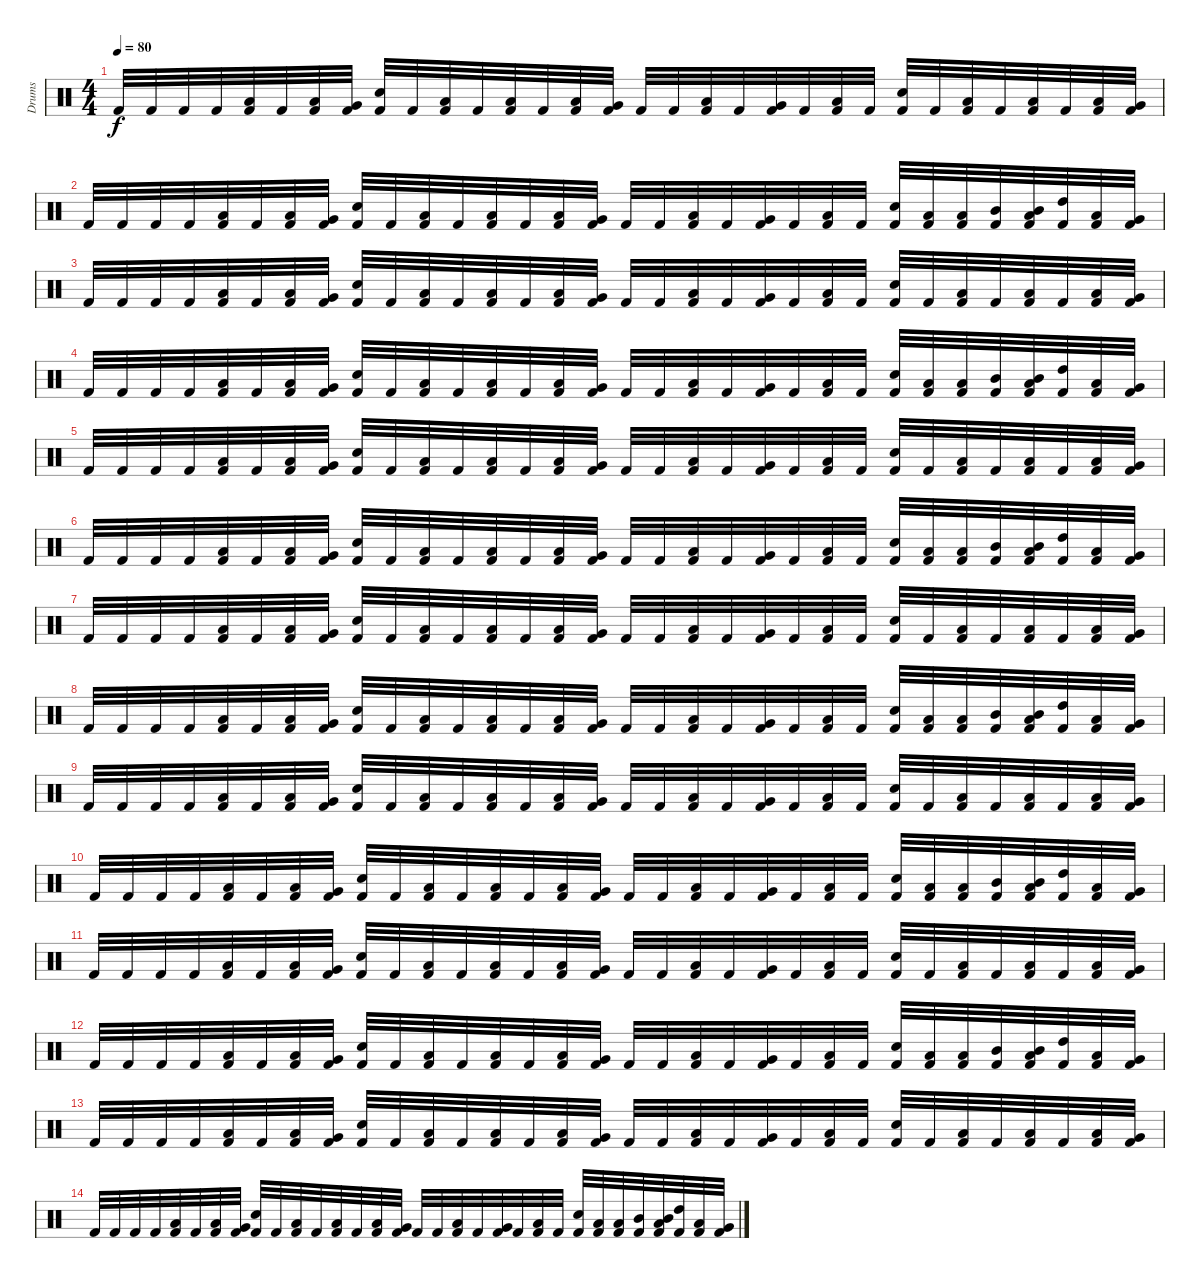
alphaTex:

\track ("Drums" "Drums") {instrument percussion}
\staff {score}
\articulation defaults
\ts (4 4)
\tempo 80
\clef neutral
\ks c "Kick (hit) 2".32{dy f} "Kick (hit) 2".32 "Kick (hit) 2".32 "Kick (hit) 2".32
("Kick (hit) 2" "Low Tom (hit)").32 "Kick (hit) 2".32 ("Kick (hit) 2" "Low Tom (hit)").32 ("Kick (hit) 2" "Very Low Tom (hit)").32 ("Kick (hit) 2" "Electric Snare (hit)").32 "Kick (hit) 2".32 ("Kick (hit) 2" "Low Tom (hit)").32 "Kick (hit) 2".32 ("Kick (hit) 2" "Low Floor Tom (hit)").32 "Kick (hit) 2".32 ("Kick (hit) 2" "Low Tom (hit)").32 ("Kick (hit) 2" "Very Low Tom (hit)").32 "Kick (hit) 2".32 "Kick (hit) 2".32 ("Kick (hit) 2" "Low Floor Tom (hit)").32 "Kick (hit) 2".32 ("Kick (hit) 2" "Very Low Tom (hit)").32 "Kick (hit) 2".32 ("Kick (hit) 2" "Low Tom (hit)").32 "Kick (hit) 2".32 ("Kick (hit) 2" "Electric Snare (hit)").32 "Kick (hit) 2".32 ("Kick (hit) 2" "Low Tom (hit)").32 "Kick (hit) 2".32 ("Kick (hit) 2" "Low Floor Tom (hit)").32 "Kick (hit) 2".32 ("Kick (hit) 2" "Low Tom (hit)").32 ("Kick (hit) 2" "Very Low Tom (hit)").32 |
"Kick (hit) 2".32 "Kick (hit) 2".32 "Kick (hit) 2".32 "Kick (hit) 2".32 ("Kick (hit) 2" "Low Tom (hit)").32 "Kick (hit) 2".32 ("Kick (hit) 2" "Low Tom (hit)").32 ("Kick (hit) 2" "Very Low Tom (hit)").32 ("Kick (hit) 2" "Electric Snare (hit)").32 "Kick (hit) 2".32 ("Kick (hit) 2" "Low Tom (hit)").32 "Kick (hit) 2".32 ("Kick (hit) 2" "Low Floor Tom (hit)").32 "Kick (hit) 2".32 ("Kick (hit) 2" "Low Tom (hit)").32 ("Kick (hit) 2" "Very Low Tom (hit)").32 "Kick (hit) 2".32 "Kick (hit) 2".32 ("Kick (hit) 2" "Low Floor Tom (hit)").32 "Kick (hit) 2".32 ("Kick (hit) 2" "Very Low Tom (hit)").32 "Kick (hit) 2".32 ("Kick (hit) 2" "Low Tom (hit)").32 "Kick (hit) 2".32 ("Kick (hit) 2" "Electric Snare (hit)").32 ("Low Tom (hit)" "Kick (hit) 2").32 ("Kick (hit) 2" "Low Tom (hit)").32 ("Mid Tom (hit)" "Kick (hit) 2").32 ("Mid Tom (hit)" "Kick (hit) 2" "Low Floor Tom (hit)").32 ("High Tom (hit)" "Kick (hit) 2").32 ("Kick (hit) 2" "Low Tom (hit)").32 ("Kick (hit) 2" "Very Low Tom (hit)").32 |
"Kick (hit) 2".32 "Kick (hit) 2".32 "Kick (hit) 2".32 "Kick (hit) 2".32 ("Kick (hit) 2" "Low Tom (hit)").32 "Kick (hit) 2".32 ("Kick (hit) 2" "Low Tom (hit)").32 ("Kick (hit) 2" "Very Low Tom (hit)").32 ("Kick (hit) 2" "Electric Snare (hit)").32 "Kick (hit) 2".32 ("Kick (hit) 2" "Low Tom (hit)").32 "Kick (hit) 2".32 ("Kick (hit) 2" "Low Floor Tom (hit)").32 "Kick (hit) 2".32 ("Kick (hit) 2" "Low Tom (hit)").32 ("Kick (hit) 2" "Very Low Tom (hit)").32 "Kick (hit) 2".32 "Kick (hit) 2".32 ("Kick (hit) 2" "Low Floor Tom (hit)").32 "Kick (hit) 2".32 ("Kick (hit) 2" "Very Low Tom (hit)").32 "Kick (hit) 2".32 ("Kick (hit) 2" "Low Tom (hit)").32 "Kick (hit) 2".32 ("Kick (hit) 2" "Electric Snare (hit)").32 "Kick (hit) 2".32 ("Kick (hit) 2" "Low Tom (hit)").32 "Kick (hit) 2".32 ("Kick (hit) 2" "Low Floor Tom (hit)").32 "Kick (hit) 2".32 ("Kick (hit) 2" "Low Tom (hit)").32 ("Kick (hit) 2" "Very Low Tom (hit)").32 |
"Kick (hit) 2".32 "Kick (hit) 2".32 "Kick (hit) 2".32 "Kick (hit) 2".32 ("Kick (hit) 2" "Low Tom (hit)").32 "Kick (hit) 2".32 ("Kick (hit) 2" "Low Tom (hit)").32 ("Kick (hit) 2" "Very Low Tom (hit)").32 ("Kick (hit) 2" "Electric Snare (hit)").32 "Kick (hit) 2".32 ("Kick (hit) 2" "Low Tom (hit)").32 "Kick (hit) 2".32 ("Kick (hit) 2" "Low Floor Tom (hit)").32 "Kick (hit) 2".32 ("Kick (hit) 2" "Low Tom (hit)").32 ("Kick (hit) 2" "Very Low Tom (hit)").32 "Kick (hit) 2".32 "Kick (hit) 2".32 ("Kick (hit) 2" "Low Floor Tom (hit)").32 "Kick (hit) 2".32 ("Kick (hit) 2" "Very Low Tom (hit)").32 "Kick (hit) 2".32 ("Kick (hit) 2" "Low Tom (hit)").32 "Kick (hit) 2".32 ("Kick (hit) 2" "Electric Snare (hit)").32 ("Low Tom (hit)" "Kick (hit) 2").32 ("Kick (hit) 2" "Low Tom (hit)").32 ("Mid Tom (hit)" "Kick (hit) 2").32 ("Mid Tom (hit)" "Kick (hit) 2" "Low Floor Tom (hit)").32 ("High Tom (hit)" "Kick (hit) 2").32 ("Kick (hit) 2" "Low Tom (hit)").32 ("Kick (hit) 2" "Very Low Tom (hit)").32 |
"Kick (hit) 2".32 "Kick (hit) 2".32 "Kick (hit) 2".32 "Kick (hit) 2".32 ("Kick (hit) 2" "Low Tom (hit)").32 "Kick (hit) 2".32 ("Kick (hit) 2" "Low Tom (hit)").32 ("Kick (hit) 2" "Very Low Tom (hit)").32 ("Kick (hit) 2" "Electric Snare (hit)").32 "Kick (hit) 2".32 ("Kick (hit) 2" "Low Tom (hit)").32 "Kick (hit) 2".32 ("Kick (hit) 2" "Low Floor Tom (hit)").32 "Kick (hit) 2".32 ("Kick (hit) 2" "Low Tom (hit)").32 ("Kick (hit) 2" "Very Low Tom (hit)").32 "Kick (hit) 2".32 "Kick (hit) 2".32 ("Kick (hit) 2" "Low Floor Tom (hit)").32 "Kick (hit) 2".32 ("Kick (hit) 2" "Very Low Tom (hit)").32 "Kick (hit) 2".32 ("Kick (hit) 2" "Low Tom (hit)").32 "Kick (hit) 2".32 ("Kick (hit) 2" "Electric Snare (hit)").32 "Kick (hit) 2".32 ("Kick (hit) 2" "Low Tom (hit)").32 "Kick (hit) 2".32 ("Kick (hit) 2" "Low Floor Tom (hit)").32 "Kick (hit) 2".32 ("Kick (hit) 2" "Low Tom (hit)").32 ("Kick (hit) 2" "Very Low Tom (hit)").32 |
"Kick (hit) 2".32 "Kick (hit) 2".32 "Kick (hit) 2".32 "Kick (hit) 2".32 ("Kick (hit) 2" "Low Tom (hit)").32 "Kick (hit) 2".32 ("Kick (hit) 2" "Low Tom (hit)").32 ("Kick (hit) 2" "Very Low Tom (hit)").32 ("Kick (hit) 2" "Electric Snare (hit)").32 "Kick (hit) 2".32 ("Kick (hit) 2" "Low Tom (hit)").32 "Kick (hit) 2".32 ("Kick (hit) 2" "Low Floor Tom (hit)").32 "Kick (hit) 2".32 ("Kick (hit) 2" "Low Tom (hit)").32 ("Kick (hit) 2" "Very Low Tom (hit)").32 "Kick (hit) 2".32 "Kick (hit) 2".32 ("Kick (hit) 2" "Low Floor Tom (hit)").32 "Kick (hit) 2".32 ("Kick (hit) 2" "Very Low Tom (hit)").32 "Kick (hit) 2".32 ("Kick (hit) 2" "Low Tom (hit)").32 "Kick (hit) 2".32 ("Kick (hit) 2" "Electric Snare (hit)").32 ("Low Tom (hit)" "Kick (hit) 2").32 ("Kick (hit) 2" "Low Tom (hit)").32 ("Mid Tom (hit)" "Kick (hit) 2").32 ("Mid Tom (hit)" "Kick (hit) 2" "Low Floor Tom (hit)").32 ("High Tom (hit)" "Kick (hit) 2").32 ("Kick (hit) 2" "Low Tom (hit)").32 ("Kick (hit) 2" "Very Low Tom (hit)").32 |
"Kick (hit) 2".32{volume 12} "Kick (hit) 2".32 "Kick (hit) 2".32 "Kick (hit) 2".32 ("Kick (hit) 2" "Low Tom (hit)").32 "Kick (hit) 2".32 ("Kick (hit) 2" "Low Tom (hit)").32 ("Kick (hit) 2" "Very Low Tom (hit)").32 ("Kick (hit) 2" "Electric Snare (hit)").32 "Kick (hit) 2".32 ("Kick (hit) 2" "Low Tom (hit)").32 "Kick (hit) 2".32 ("Kick (hit) 2" "Low Floor Tom (hit)").32 "Kick (hit) 2".32 ("Kick (hit) 2" "Low Tom (hit)").32 ("Kick (hit) 2" "Very Low Tom (hit)").32 "Kick (hit) 2".32 "Kick (hit) 2".32 ("Kick (hit) 2" "Low Floor Tom (hit)").32 "Kick (hit) 2".32 ("Kick (hit) 2" "Very Low Tom (hit)").32 "Kick (hit) 2".32 ("Kick (hit) 2" "Low Tom (hit)").32 "Kick (hit) 2".32 ("Kick (hit) 2" "Electric Snare (hit)").32 "Kick (hit) 2".32 ("Kick (hit) 2" "Low Tom (hit)").32 "Kick (hit) 2".32 ("Kick (hit) 2" "Low Floor Tom (hit)").32 "Kick (hit) 2".32 ("Kick (hit) 2" "Low Tom (hit)").32 ("Kick (hit) 2" "Very Low Tom (hit)").32 |
"Kick (hit) 2".32 "Kick (hit) 2".32 "Kick (hit) 2".32 "Kick (hit) 2".32 ("Kick (hit) 2" "Low Tom (hit)").32 "Kick (hit) 2".32 ("Kick (hit) 2" "Low Tom (hit)").32 ("Kick (hit) 2" "Very Low Tom (hit)").32 ("Kick (hit) 2" "Electric Snare (hit)").32 "Kick (hit) 2".32 ("Kick (hit) 2" "Low Tom (hit)").32 "Kick (hit) 2".32 ("Kick (hit) 2" "Low Floor Tom (hit)").32 "Kick (hit) 2".32 ("Kick (hit) 2" "Low Tom (hit)").32 ("Kick (hit) 2" "Very Low Tom (hit)").32 "Kick (hit) 2".32 "Kick (hit) 2".32 ("Kick (hit) 2" "Low Floor Tom (hit)").32 "Kick (hit) 2".32 ("Kick (hit) 2" "Very Low Tom (hit)").32 "Kick (hit) 2".32 ("Kick (hit) 2" "Low Tom (hit)").32 "Kick (hit) 2".32 ("Kick (hit) 2" "Electric Snare (hit)").32 ("Low Tom (hit)" "Kick (hit) 2").32 ("Kick (hit) 2" "Low Tom (hit)").32 ("Mid Tom (hit)" "Kick (hit) 2").32 ("Mid Tom (hit)" "Kick (hit) 2" "Low Floor Tom (hit)").32 ("High Tom (hit)" "Kick (hit) 2").32 ("Kick (hit) 2" "Low Tom (hit)").32 ("Kick (hit) 2" "Very Low Tom (hit)").32 |
"Kick (hit) 2".32 "Kick (hit) 2".32 "Kick (hit) 2".32 "Kick (hit) 2".32 ("Kick (hit) 2" "Low Tom (hit)").32 "Kick (hit) 2".32 ("Kick (hit) 2" "Low Tom (hit)").32 ("Kick (hit) 2" "Very Low Tom (hit)").32 ("Kick (hit) 2" "Electric Snare (hit)").32 "Kick (hit) 2".32 ("Kick (hit) 2" "Low Tom (hit)").32 "Kick (hit) 2".32 ("Kick (hit) 2" "Low Floor Tom (hit)").32 "Kick (hit) 2".32 ("Kick (hit) 2" "Low Tom (hit)").32 ("Very Low Tom (hit)" "Kick (hit) 2").32 "Kick (hit) 2".32 "Kick (hit) 2".32 ("Kick (hit) 2" "Low Floor Tom (hit)").32 "Kick (hit) 2".32 ("Kick (hit) 2" "Very Low Tom (hit)").32 "Kick (hit) 2".32 ("Kick (hit) 2" "Low Tom (hit)").32 "Kick (hit) 2".32 ("Kick (hit) 2" "Electric Snare (hit)").32 "Kick (hit) 2".32 ("Kick (hit) 2" "Low Tom (hit)").32 "Kick (hit) 2".32 ("Kick (hit) 2" "Low Floor Tom (hit)").32 "Kick (hit) 2".32 ("Kick (hit) 2" "Low Tom (hit)").32 ("Very Low Tom (hit)" "Kick (hit) 2").32 |
"Kick (hit) 2".32 "Kick (hit) 2".32 "Kick (hit) 2".32 "Kick (hit) 2".32 ("Low Tom (hit)" "Kick (hit) 2").32 "Kick (hit) 2".32 ("Kick (hit) 2" "Low Tom (hit)").32 ("Kick (hit) 2" "Very Low Tom (hit)").32 ("Kick (hit) 2" "Electric Snare (hit)").32 "Kick (hit) 2".32 ("Low Tom (hit)" "Kick (hit) 2").32 "Kick (hit) 2".32 ("Low Floor Tom (hit)" "Kick (hit) 2").32 "Kick (hit) 2".32 ("Kick (hit) 2" "Low Tom (hit)").32 ("Very Low Tom (hit)" "Kick (hit) 2").32 "Kick (hit) 2".32 "Kick (hit) 2".32 ("Kick (hit) 2" "Low Floor Tom (hit)").32 "Kick (hit) 2".32 ("Kick (hit) 2" "Very Low Tom (hit)").32 "Kick (hit) 2".32 ("Kick (hit) 2" "Low Tom (hit)").32 "Kick (hit) 2".32 ("Kick (hit) 2" "Electric Snare (hit)").32 ("Low Tom (hit)" "Kick (hit) 2").32 ("Kick (hit) 2" "Low Tom (hit)").32 ("Kick (hit) 2" "Mid Tom (hit)").32 ("Kick (hit) 2" "Low Floor Tom (hit)" "Mid Tom (hit)").32 ("Kick (hit) 2" "High Tom (hit)").32 ("Kick (hit) 2" "Low Tom (hit)").32 ("Kick (hit) 2" "Very Low Tom (hit)").32 |
"Kick (hit) 2".32{volume 10} "Kick (hit) 2".32 "Kick (hit) 2".32 "Kick (hit) 2".32 ("Kick (hit) 2" "Low Tom (hit)").32 "Kick (hit) 2".32 ("Low Tom (hit)" "Kick (hit) 2").32 ("Kick (hit) 2" "Very Low Tom (hit)").32 ("Electric Snare (hit)" "Kick (hit) 2").32 "Kick (hit) 2".32 ("Kick (hit) 2" "Low Tom (hit)").32 "Kick (hit) 2".32 ("Low Floor Tom (hit)" "Kick (hit) 2").32 "Kick (hit) 2".32 ("Kick (hit) 2" "Low Tom (hit)").32 ("Very Low Tom (hit)" "Kick (hit) 2").32 "Kick (hit) 2".32 "Kick (hit) 2".32 ("Low Floor Tom (hit)" "Kick (hit) 2").32 "Kick (hit) 2".32 ("Kick (hit) 2" "Very Low Tom (hit)").32 "Kick (hit) 2".32 ("Kick (hit) 2" "Low Tom (hit)").32 "Kick (hit) 2".32 ("Kick (hit) 2" "Electric Snare (hit)").32 "Kick (hit) 2".32 ("Kick (hit) 2" "Low Tom (hit)").32 "Kick (hit) 2".32 ("Kick (hit) 2" "Low Floor Tom (hit)").32 "Kick (hit) 2".32 ("Low Tom (hit)" "Kick (hit) 2").32 ("Very Low Tom (hit)" "Kick (hit) 2").32 |
"Kick (hit) 2".32{volume 8} "Kick (hit) 2".32 "Kick (hit) 2".32 "Kick (hit) 2".32 ("Kick (hit) 2" "Low Tom (hit)").32 "Kick (hit) 2".32 ("Kick (hit) 2" "Low Tom (hit)").32 ("Very Low Tom (hit)" "Kick (hit) 2").32 ("Kick (hit) 2" "Electric Snare (hit)").32 "Kick (hit) 2".32 ("Low Tom (hit)" "Kick (hit) 2").32 "Kick (hit) 2".32 ("Low Floor Tom (hit)" "Kick (hit) 2").32 "Kick (hit) 2".32 ("Kick (hit) 2" "Low Tom (hit)").32 ("Kick (hit) 2" "Very Low Tom (hit)").32 "Kick (hit) 2".32 "Kick (hit) 2".32 ("Kick (hit) 2" "Low Floor Tom (hit)").32 "Kick (hit) 2".32 ("Very Low Tom (hit)" "Kick (hit) 2").32 "Kick (hit) 2".32 ("Low Tom (hit)" "Kick (hit) 2").32 "Kick (hit) 2".32 ("Electric Snare (hit)" "Kick (hit) 2").32 ("Low Tom (hit)" "Kick (hit) 2").32 ("Kick (hit) 2" "Low Tom (hit)").32 ("Mid Tom (hit)" "Kick (hit) 2").32 ("Mid Tom (hit)" "Low Floor Tom (hit)" "Kick (hit) 2").32 ("High Tom (hit)" "Kick (hit) 2").32 ("Kick (hit) 2" "Low Tom (hit)").32 ("Kick (hit) 2" "Very Low Tom (hit)").32 |
"Kick (hit) 2".32{volume 5} "Kick (hit) 2".32 "Kick (hit) 2".32 "Kick (hit) 2".32 ("Kick (hit) 2" "Low Tom (hit)").32 "Kick (hit) 2".32 ("Low Tom (hit)" "Kick (hit) 2").32 ("Kick (hit) 2" "Very Low Tom (hit)").32 ("Kick (hit) 2" "Electric Snare (hit)").32 "Kick (hit) 2".32 ("Kick (hit) 2" "Low Tom (hit)").32 "Kick (hit) 2".32 ("Low Floor Tom (hit)" "Kick (hit) 2").32 "Kick (hit) 2".32 ("Kick (hit) 2" "Low Tom (hit)").32 ("Very Low Tom (hit)" "Kick (hit) 2").32 "Kick (hit) 2".32 "Kick (hit) 2".32 ("Kick (hit) 2" "Low Floor Tom (hit)").32 "Kick (hit) 2".32 ("Kick (hit) 2" "Very Low Tom (hit)").32 "Kick (hit) 2".32 ("Low Tom (hit)" "Kick (hit) 2").32 "Kick (hit) 2".32 ("Kick (hit) 2" "Electric Snare (hit)").32 "Kick (hit) 2".32 ("Kick (hit) 2" "Low Tom (hit)").32 "Kick (hit) 2".32 ("Kick (hit) 2" "Low Floor Tom (hit)").32 "Kick (hit) 2".32 ("Kick (hit) 2" "Low Tom (hit)").32 ("Kick (hit) 2" "Very Low Tom (hit)").32 |
"Kick (hit) 2".32{volume 2} "Kick (hit) 2".32 "Kick (hit) 2".32 "Kick (hit) 2".32 ("Low Tom (hit)" "Kick (hit) 2").32 "Kick (hit) 2".32 ("Kick (hit) 2" "Low Tom (hit)").32 ("Very Low Tom (hit)" "Kick (hit) 2").32 ("Kick (hit) 2" "Electric Snare (hit)").32 "Kick (hit) 2".32 ("Kick (hit) 2" "Low Tom (hit)").32 "Kick (hit) 2".32 ("Low Floor Tom (hit)" "Kick (hit) 2").32 "Kick (hit) 2".32 ("Kick (hit) 2" "Low Tom (hit)").32 ("Very Low Tom (hit)" "Kick (hit) 2").32 "Kick (hit) 2".32 "Kick (hit) 2".32 ("Kick (hit) 2" "Low Floor Tom (hit)").32 "Kick (hit) 2".32 ("Very Low Tom (hit)" "Kick (hit) 2").32 "Kick (hit) 2".32 ("Kick (hit) 2" "Low Tom (hit)").32 "Kick (hit) 2".32 ("Kick (hit) 2" "Electric Snare (hit)").32 ("Low Tom (hit)" "Kick (hit) 2").32 ("Kick (hit) 2" "Low Tom (hit)").32 ("Kick (hit) 2" "Mid Tom (hit)").32 ("Mid Tom (hit)" "Low Floor Tom (hit)" "Kick (hit) 2").32 ("Kick (hit) 2" "High Tom (hit)").32 ("Low Tom (hit)" "Kick (hit) 2").32 ("Very Low Tom (hit)" "Kick (hit) 2").32
